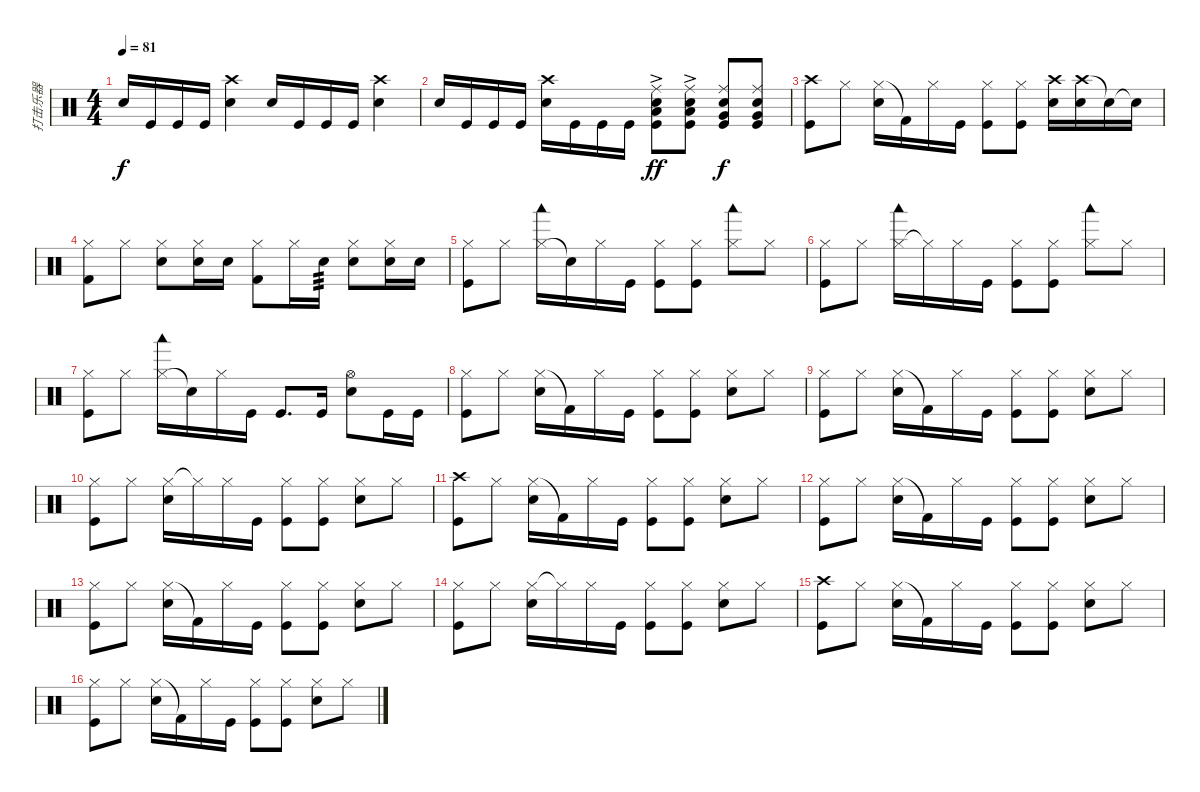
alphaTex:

\track ("打击乐器" "打击乐器") {instrument percussion}
\staff {score}
\articulation defaults
\ts (4 4)
\tempo 81
\clef neutral
\ks c "Electric Snare (hit)".16{dy f} "Kick (hit)".16 "Kick (hit)".16 "Kick (hit)".16
("Crash high (hit)" "Electric Snare (hit)").4 "Electric Snare (hit)".16 "Kick (hit)".16 "Kick (hit)".16 "Kick (hit)".16 ("Crash high (hit)" "Electric Snare (hit)").4 |
"Electric Snare (hit)".16 "Kick (hit)".16 "Kick (hit)".16 "Kick (hit)".16 ("Crash high (hit)" "Electric Snare (hit)").16 "Kick (hit)".16 "Kick (hit)".16 "Kick (hit)".16 ("Ride (middle)" "Low Floor Tom (hit)" "Electric Snare (hit)" "Kick (hit)"{ac}).8{dy ff} ("Ride (middle)" "Low Floor Tom (hit)" "Electric Snare (hit)" "Kick (hit)"{ac}).8 ("Ride (middle)" "Very Low Tom (hit)" "Electric Snare (hit)" "Kick (hit)").8{dy f} ("Ride (middle)" "Very Low Tom (hit)" "Electric Snare (hit)" "Kick (hit)").8 |
("Crash high (hit)" "Kick (hit)").8 "Hi-Hat (closed)".8 ("Hi-Hat (closed)" "Electric Snare (hit)").16 "Kick (hit) 2"{t}.16 "Hi-Hat (closed)".16 "Kick (hit)".16 ("Hi-Hat (closed)" "Kick (hit)").8 ("Hi-Hat (closed)" "Kick (hit)").8 ("Crash high (hit)" "Electric Snare (hit)").16 ("Crash high (hit)" "Electric Snare (hit)").16 "Snare (hit)"{t}.16 "Snare (hit)"{t}.16 |
("Hi-Hat (closed)" "Kick (hit) 2").8 "Hi-Hat (closed)".8 ("Hi-Hat (closed)" "Electric Snare (hit)").8 ("Hi-Hat (closed)" "Electric Snare (hit)").16 "Electric Snare (hit)".16 ("Hi-Hat (closed)" "Kick (hit) 2").8 "Hi-Hat (closed)".16 "Electric Snare (hit)".16{tp 3} ("Hi-Hat (closed)" "Electric Snare (hit)").8 ("Hi-Hat (closed)" "Electric Snare (hit)").16 "Electric Snare (hit)".16 |
("Hi-Hat (closed)" "Kick (hit)").8 "Hi-Hat (closed)".8 ("Hi-Hat (closed)" "Woodblock low (hit)").16 "Snare (hit)"{t}.16 "Hi-Hat (closed)".16 "Kick (hit)".16 ("Hi-Hat (closed)" "Kick (hit)").8 ("Hi-Hat (closed)" "Kick (hit)").8 ("Hi-Hat (closed)" "Woodblock low (hit)").8 "Hi-Hat (closed)".8 |
("Hi-Hat (closed)" "Kick (hit)").8 "Hi-Hat (closed)".8 ("Hi-Hat (closed)" "Woodblock low (hit)").16 "Hi-Hat (closed)"{t}.16 "Hi-Hat (closed)".16 "Kick (hit)".16 ("Hi-Hat (closed)" "Kick (hit)").8 ("Hi-Hat (closed)" "Kick (hit)").8 ("Hi-Hat (closed)" "Woodblock low (hit)").8 "Hi-Hat (closed)".8 |
("Hi-Hat (closed)" "Kick (hit)").8 "Hi-Hat (closed)".8 ("Hi-Hat (closed)" "Woodblock low (hit)").16 "Snare (hit)"{t}.16 "Hi-Hat (closed)".16 "Kick (hit)".16 "Kick (hit)".8{d} "Kick (hit)".16 ("Hi-Hat (open)" "Electric Snare (hit)").8 "Kick (hit)".16 "Kick (hit)".16 |
("Hi-Hat (closed)" "Kick (hit)").8 "Hi-Hat (closed)".8 ("Hi-Hat (closed)" "Electric Snare (hit)").16 "Kick (hit) 2"{t}.16 "Hi-Hat (closed)".16 "Kick (hit)".16 ("Hi-Hat (closed)" "Kick (hit)").8 ("Hi-Hat (closed)" "Kick (hit)").8 ("Hi-Hat (closed)" "Electric Snare (hit)").8 "Hi-Hat (closed)".8 |
("Hi-Hat (closed)" "Kick (hit)").8 "Hi-Hat (closed)".8 ("Hi-Hat (closed)" "Electric Snare (hit)").16 "Kick (hit) 2"{t}.16 "Hi-Hat (closed)".16 "Kick (hit)".16 ("Hi-Hat (closed)" "Kick (hit)").8 ("Hi-Hat (closed)" "Kick (hit)").8 ("Hi-Hat (closed)" "Electric Snare (hit)").8 "Hi-Hat (closed)".8 |
("Hi-Hat (closed)" "Kick (hit)").8 "Hi-Hat (closed)".8 ("Hi-Hat (closed)" "Electric Snare (hit)").16 "Hi-Hat (closed)"{t}.16 "Hi-Hat (closed)".16 "Kick (hit)".16 ("Hi-Hat (closed)" "Kick (hit)").8 ("Hi-Hat (closed)" "Kick (hit)").8 ("Hi-Hat (closed)" "Electric Snare (hit)").8 "Hi-Hat (closed)".8 |
("Crash high (hit)" "Kick (hit)").8 "Hi-Hat (closed)".8 ("Hi-Hat (closed)" "Electric Snare (hit)").16 "Kick (hit) 2"{t}.16 "Hi-Hat (closed)".16 "Kick (hit)".16 ("Hi-Hat (closed)" "Kick (hit)").8 ("Hi-Hat (closed)" "Kick (hit)").8 ("Hi-Hat (closed)" "Electric Snare (hit)").8 "Hi-Hat (closed)".8 |
("Hi-Hat (closed)" "Kick (hit)").8 "Hi-Hat (closed)".8 ("Hi-Hat (closed)" "Electric Snare (hit)").16 "Kick (hit) 2"{t}.16 "Hi-Hat (closed)".16 "Kick (hit)".16 ("Hi-Hat (closed)" "Kick (hit)").8 ("Hi-Hat (closed)" "Kick (hit)").8 ("Hi-Hat (closed)" "Electric Snare (hit)").8 "Hi-Hat (closed)".8 |
("Hi-Hat (closed)" "Kick (hit)").8 "Hi-Hat (closed)".8 ("Hi-Hat (closed)" "Electric Snare (hit)").16 "Kick (hit) 2"{t}.16 "Hi-Hat (closed)".16 "Kick (hit)".16 ("Hi-Hat (closed)" "Kick (hit)").8 ("Hi-Hat (closed)" "Kick (hit)").8 ("Hi-Hat (closed)" "Electric Snare (hit)").8 "Hi-Hat (closed)".8 |
("Hi-Hat (closed)" "Kick (hit)").8 "Hi-Hat (closed)".8 ("Hi-Hat (closed)" "Electric Snare (hit)").16 "Hi-Hat (closed)"{t}.16 "Hi-Hat (closed)".16 "Kick (hit)".16 ("Hi-Hat (closed)" "Kick (hit)").8 ("Hi-Hat (closed)" "Kick (hit)").8 ("Hi-Hat (closed)" "Electric Snare (hit)").8 "Hi-Hat (closed)".8 |
("Crash high (hit)" "Kick (hit)").8 "Hi-Hat (closed)".8 ("Hi-Hat (closed)" "Electric Snare (hit)").16 "Kick (hit) 2"{t}.16 "Hi-Hat (closed)".16 "Kick (hit)".16 ("Hi-Hat (closed)" "Kick (hit)").8 ("Hi-Hat (closed)" "Kick (hit)").8 ("Hi-Hat (closed)" "Electric Snare (hit)").8 "Hi-Hat (closed)".8 |
("Hi-Hat (closed)" "Kick (hit)").8 "Hi-Hat (closed)".8 ("Hi-Hat (closed)" "Electric Snare (hit)").16 "Kick (hit) 2"{t}.16 "Hi-Hat (closed)".16 "Kick (hit)".16 ("Hi-Hat (closed)" "Kick (hit)").8 ("Hi-Hat (closed)" "Kick (hit)").8 ("Hi-Hat (closed)" "Electric Snare (hit)").8 "Hi-Hat (closed)".8
